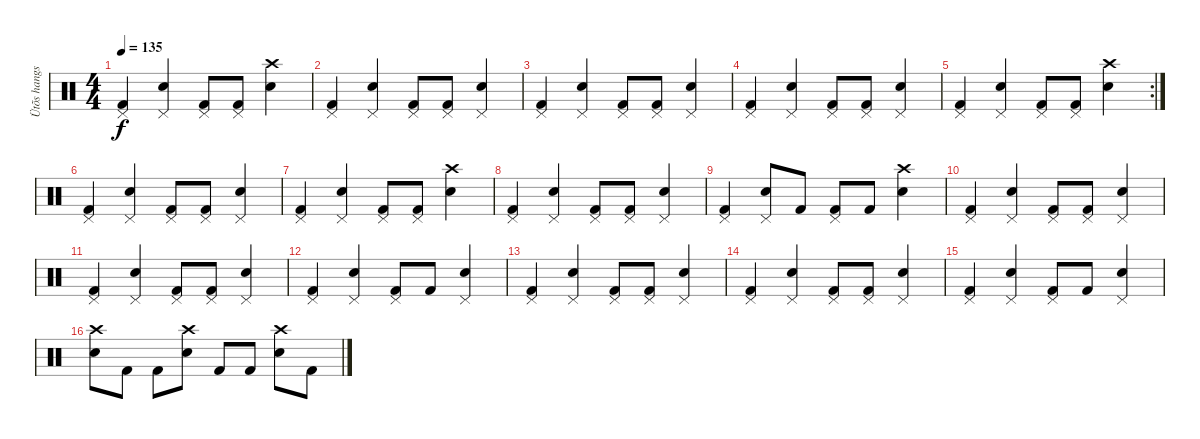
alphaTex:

\track ("Ütõs hangszer" "Ütõs hangs") {instrument percussion}
\staff {score}
\articulation defaults
\ts (4 4)
\tempo 135
\clef neutral
\ks c
("Pedal Hi-Hat (hit)" "Kick (hit) 2").4{dy f} ("Pedal Hi-Hat (hit)" "Electric Snare (hit)").4 ("Pedal Hi-Hat (hit)" "Kick (hit) 2").8 ("Pedal Hi-Hat (hit)" "Kick (hit) 2").8 ("Crash high (hit)" "Electric Snare (hit)").4 |
("Pedal Hi-Hat (hit)" "Kick (hit) 2").4 ("Pedal Hi-Hat (hit)" "Electric Snare (hit)").4 ("Pedal Hi-Hat (hit)" "Kick (hit) 2").8 ("Pedal Hi-Hat (hit)" "Kick (hit) 2").8 ("Pedal Hi-Hat (hit)" "Electric Snare (hit)").4 |
("Pedal Hi-Hat (hit)" "Kick (hit) 2").4 ("Pedal Hi-Hat (hit)" "Electric Snare (hit)").4 ("Pedal Hi-Hat (hit)" "Kick (hit) 2").8 ("Pedal Hi-Hat (hit)" "Kick (hit) 2").8 ("Pedal Hi-Hat (hit)" "Electric Snare (hit)").4 |
("Pedal Hi-Hat (hit)" "Kick (hit) 2").4 ("Pedal Hi-Hat (hit)" "Electric Snare (hit)").4 ("Pedal Hi-Hat (hit)" "Kick (hit) 2").8 ("Pedal Hi-Hat (hit)" "Kick (hit) 2").8 ("Pedal Hi-Hat (hit)" "Electric Snare (hit)").4 |
\rc 2
("Pedal Hi-Hat (hit)" "Kick (hit) 2").4 ("Pedal Hi-Hat (hit)" "Electric Snare (hit)").4 ("Pedal Hi-Hat (hit)" "Kick (hit) 2").8 ("Pedal Hi-Hat (hit)" "Kick (hit) 2").8 ("Crash high (hit)" "Electric Snare (hit)").4 |
("Pedal Hi-Hat (hit)" "Kick (hit) 2").4 ("Pedal Hi-Hat (hit)" "Electric Snare (hit)").4 ("Pedal Hi-Hat (hit)" "Kick (hit) 2").8 ("Pedal Hi-Hat (hit)" "Kick (hit) 2").8 ("Pedal Hi-Hat (hit)" "Electric Snare (hit)").4 |
("Pedal Hi-Hat (hit)" "Kick (hit) 2").4 ("Pedal Hi-Hat (hit)" "Electric Snare (hit)").4 ("Pedal Hi-Hat (hit)" "Kick (hit) 2").8 ("Pedal Hi-Hat (hit)" "Kick (hit) 2").8 ("Crash high (hit)" "Electric Snare (hit)").4 |
("Pedal Hi-Hat (hit)" "Kick (hit) 2").4 ("Pedal Hi-Hat (hit)" "Electric Snare (hit)").4 ("Pedal Hi-Hat (hit)" "Kick (hit) 2").8 ("Pedal Hi-Hat (hit)" "Kick (hit) 2").8 ("Pedal Hi-Hat (hit)" "Electric Snare (hit)").4 |
("Pedal Hi-Hat (hit)" "Kick (hit) 2").4 ("Pedal Hi-Hat (hit)" "Electric Snare (hit)").8 "Kick (hit) 2".8 ("Pedal Hi-Hat (hit)" "Kick (hit) 2").8 "Kick (hit) 2".8 ("Crash high (hit)" "Electric Snare (hit)").4 |
("Pedal Hi-Hat (hit)" "Kick (hit) 2").4 ("Pedal Hi-Hat (hit)" "Electric Snare (hit)").4 ("Pedal Hi-Hat (hit)" "Kick (hit) 2").8 ("Pedal Hi-Hat (hit)" "Kick (hit) 2").8 ("Pedal Hi-Hat (hit)" "Electric Snare (hit)").4 |
("Pedal Hi-Hat (hit)" "Kick (hit) 2").4 ("Pedal Hi-Hat (hit)" "Electric Snare (hit)").4 ("Pedal Hi-Hat (hit)" "Kick (hit) 2").8 ("Pedal Hi-Hat (hit)" "Kick (hit) 2").8 ("Pedal Hi-Hat (hit)" "Electric Snare (hit)").4 |
("Pedal Hi-Hat (hit)" "Kick (hit) 2").4 ("Pedal Hi-Hat (hit)" "Electric Snare (hit)").4 ("Pedal Hi-Hat (hit)" "Kick (hit) 2").8 "Kick (hit) 2".8 ("Pedal Hi-Hat (hit)" "Electric Snare (hit)").4 |
("Pedal Hi-Hat (hit)" "Kick (hit) 2").4 ("Pedal Hi-Hat (hit)" "Electric Snare (hit)").4 ("Pedal Hi-Hat (hit)" "Kick (hit) 2").8 ("Pedal Hi-Hat (hit)" "Kick (hit) 2").8 ("Pedal Hi-Hat (hit)" "Electric Snare (hit)").4 |
("Pedal Hi-Hat (hit)" "Kick (hit) 2").4 ("Pedal Hi-Hat (hit)" "Electric Snare (hit)").4 ("Pedal Hi-Hat (hit)" "Kick (hit) 2").8 ("Pedal Hi-Hat (hit)" "Kick (hit) 2").8 ("Pedal Hi-Hat (hit)" "Electric Snare (hit)").4 |
("Pedal Hi-Hat (hit)" "Kick (hit) 2").4 ("Pedal Hi-Hat (hit)" "Electric Snare (hit)").4 ("Pedal Hi-Hat (hit)" "Kick (hit) 2").8 "Kick (hit) 2".8 ("Pedal Hi-Hat (hit)" "Electric Snare (hit)").4 |
("Crash high (hit)" "Electric Snare (hit)").8 "Kick (hit) 2".8 "Kick (hit) 2".8 ("Crash high (hit)" "Electric Snare (hit)").8 "Kick (hit) 2".8 "Kick (hit) 2".8 ("Crash high (hit)" "Electric Snare (hit)").8 "Kick (hit) 2".8
